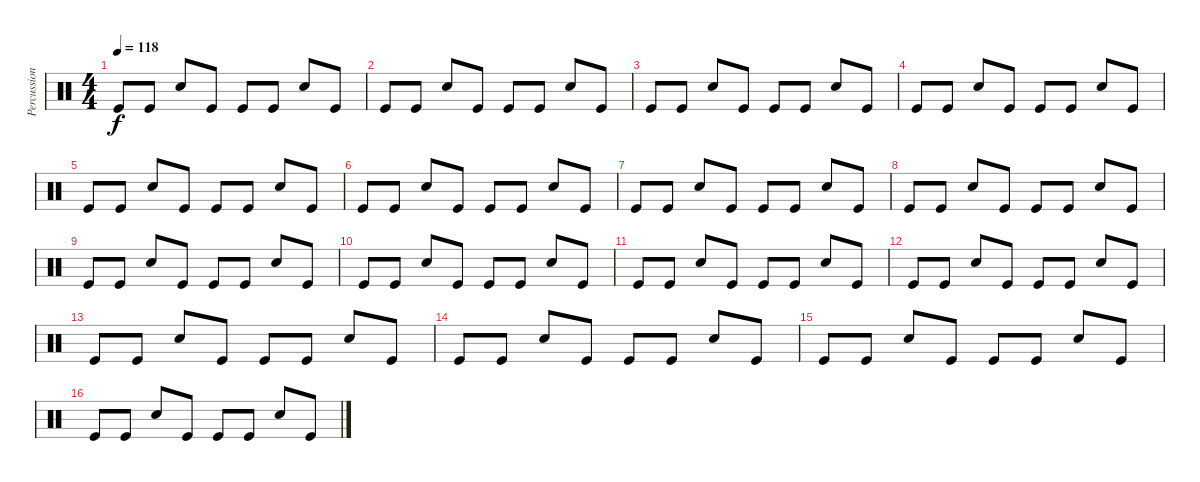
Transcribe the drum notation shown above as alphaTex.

\track ("Percussion" "Percussion") {instrument percussion}
\staff {score}
\articulation defaults
\ts (4 4)
\tempo 118
\clef neutral
\ks c "Kick (hit)".8{dy f} "Kick (hit)".8 "Snare (hit) 2".8 "Kick (hit)".8 "Kick (hit)".8 "Kick (hit)".8 "Snare (hit) 2".8 "Kick (hit)".8
|
"Kick (hit)".8 "Kick (hit)".8 "Snare (hit) 2".8 "Kick (hit)".8 "Kick (hit)".8 "Kick (hit)".8 "Snare (hit) 2".8 "Kick (hit)".8 |
"Kick (hit)".8 "Kick (hit)".8 "Snare (hit) 2".8 "Kick (hit)".8 "Kick (hit)".8 "Kick (hit)".8 "Snare (hit) 2".8 "Kick (hit)".8 |
"Kick (hit)".8 "Kick (hit)".8 "Snare (hit) 2".8 "Kick (hit)".8 "Kick (hit)".8 "Kick (hit)".8 "Snare (hit) 2".8 "Kick (hit)".8 |
"Kick (hit)".8 "Kick (hit)".8 "Snare (hit) 2".8 "Kick (hit)".8 "Kick (hit)".8 "Kick (hit)".8 "Snare (hit) 2".8 "Kick (hit)".8 |
"Kick (hit)".8 "Kick (hit)".8 "Snare (hit) 2".8 "Kick (hit)".8 "Kick (hit)".8 "Kick (hit)".8 "Snare (hit) 2".8 "Kick (hit)".8 |
"Kick (hit)".8 "Kick (hit)".8 "Snare (hit) 2".8 "Kick (hit)".8 "Kick (hit)".8 "Kick (hit)".8 "Snare (hit) 2".8 "Kick (hit)".8 |
"Kick (hit)".8 "Kick (hit)".8 "Snare (hit) 2".8 "Kick (hit)".8 "Kick (hit)".8 "Kick (hit)".8 "Snare (hit) 2".8 "Kick (hit)".8 |
"Kick (hit)".8 "Kick (hit)".8 "Snare (hit) 2".8 "Kick (hit)".8 "Kick (hit)".8 "Kick (hit)".8 "Snare (hit) 2".8 "Kick (hit)".8 |
"Kick (hit)".8 "Kick (hit)".8 "Snare (hit) 2".8 "Kick (hit)".8 "Kick (hit)".8 "Kick (hit)".8 "Snare (hit) 2".8 "Kick (hit)".8 |
"Kick (hit)".8 "Kick (hit)".8 "Snare (hit) 2".8 "Kick (hit)".8 "Kick (hit)".8 "Kick (hit)".8 "Snare (hit) 2".8 "Kick (hit)".8 |
"Kick (hit)".8 "Kick (hit)".8 "Snare (hit) 2".8 "Kick (hit)".8 "Kick (hit)".8 "Kick (hit)".8 "Snare (hit) 2".8 "Kick (hit)".8 |
"Kick (hit)".8 "Kick (hit)".8 "Snare (hit) 2".8 "Kick (hit)".8 "Kick (hit)".8 "Kick (hit)".8 "Snare (hit) 2".8 "Kick (hit)".8 |
"Kick (hit)".8 "Kick (hit)".8 "Snare (hit) 2".8 "Kick (hit)".8 "Kick (hit)".8 "Kick (hit)".8 "Snare (hit) 2".8 "Kick (hit)".8 |
"Kick (hit)".8 "Kick (hit)".8 "Snare (hit) 2".8 "Kick (hit)".8 "Kick (hit)".8 "Kick (hit)".8 "Snare (hit) 2".8 "Kick (hit)".8 |
"Kick (hit)".8 "Kick (hit)".8 "Snare (hit) 2".8 "Kick (hit)".8 "Kick (hit)".8 "Kick (hit)".8 "Snare (hit) 2".8 "Kick (hit)".8
